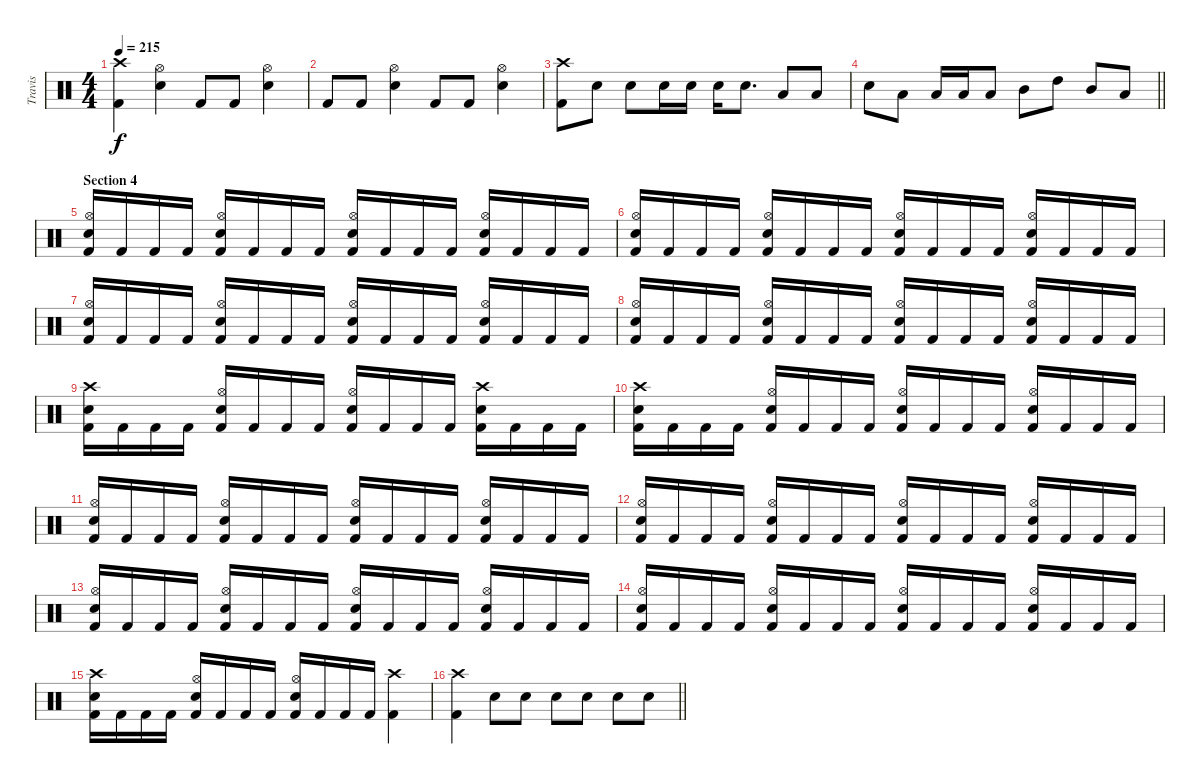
\track ("Travis" "Travis") {instrument percussion}
\staff {score}
\articulation defaults
\ts (4 4)
\tempo 215
\clef neutral
\ks c
("Crash high (hit)" "Kick (hit) 2").4{dy f} ("Hi-Hat (open)" "Snare (hit) 2").4 "Kick (hit) 2".8 "Kick (hit) 2".8 ("Hi-Hat (open)" "Snare (hit) 2").4 |
"Kick (hit) 2".8 "Kick (hit) 2".8 ("Hi-Hat (open)" "Snare (hit) 2").4 "Kick (hit) 2".8 "Kick (hit) 2".8 ("Hi-Hat (open)" "Snare (hit) 2").4 |
("Crash high (hit)" "Kick (hit) 2").8 "Snare (hit) 2".8 "Snare (hit) 2".8 "Snare (hit) 2".16 "Snare (hit) 2".16 "Snare (hit) 2".16 "Snare (hit) 2".8{d} "Low Tom (hit)".8 "Low Tom (hit)".8 |
\barLineRight lightlight "Snare (hit) 2".8 "Low Tom (hit)".8 "Low Tom (hit)".16 "Low Tom (hit)".16 "Low Tom (hit)".8 "Mid Tom (hit)".8 "High Tom (hit)".8 "Mid Tom (hit)".8 "Low Tom (hit)".8
|
\section ("" "Section 4")
("Hi-Hat (open)" "Snare (hit) 2" "Kick (hit) 2").16 "Kick (hit) 2".16 "Kick (hit) 2".16 "Kick (hit) 2".16 ("Hi-Hat (open)" "Snare (hit) 2" "Kick (hit) 2").16 "Kick (hit) 2".16 "Kick (hit) 2".16 "Kick (hit) 2".16 ("Hi-Hat (open)" "Snare (hit) 2" "Kick (hit) 2").16 "Kick (hit) 2".16 "Kick (hit) 2".16 "Kick (hit) 2".16 ("Hi-Hat (open)" "Snare (hit) 2" "Kick (hit) 2").16 "Kick (hit) 2".16 "Kick (hit) 2".16 "Kick (hit) 2".16 |
("Hi-Hat (open)" "Snare (hit) 2" "Kick (hit) 2").16 "Kick (hit) 2".16 "Kick (hit) 2".16 "Kick (hit) 2".16 ("Hi-Hat (open)" "Snare (hit) 2" "Kick (hit) 2").16 "Kick (hit) 2".16 "Kick (hit) 2".16 "Kick (hit) 2".16 ("Hi-Hat (open)" "Snare (hit) 2" "Kick (hit) 2").16 "Kick (hit) 2".16 "Kick (hit) 2".16 "Kick (hit) 2".16 ("Hi-Hat (open)" "Snare (hit) 2" "Kick (hit) 2").16 "Kick (hit) 2".16 "Kick (hit) 2".16 "Kick (hit) 2".16 |
("Hi-Hat (open)" "Snare (hit) 2" "Kick (hit) 2").16 "Kick (hit) 2".16 "Kick (hit) 2".16 "Kick (hit) 2".16 ("Hi-Hat (open)" "Snare (hit) 2" "Kick (hit) 2").16 "Kick (hit) 2".16 "Kick (hit) 2".16 "Kick (hit) 2".16 ("Hi-Hat (open)" "Snare (hit) 2" "Kick (hit) 2").16 "Kick (hit) 2".16 "Kick (hit) 2".16 "Kick (hit) 2".16 ("Hi-Hat (open)" "Snare (hit) 2" "Kick (hit) 2").16 "Kick (hit) 2".16 "Kick (hit) 2".16 "Kick (hit) 2".16 |
("Hi-Hat (open)" "Snare (hit) 2" "Kick (hit) 2").16 "Kick (hit) 2".16 "Kick (hit) 2".16 "Kick (hit) 2".16 ("Hi-Hat (open)" "Snare (hit) 2" "Kick (hit) 2").16 "Kick (hit) 2".16 "Kick (hit) 2".16 "Kick (hit) 2".16 ("Hi-Hat (open)" "Snare (hit) 2" "Kick (hit) 2").16 "Kick (hit) 2".16 "Kick (hit) 2".16 "Kick (hit) 2".16 ("Hi-Hat (open)" "Snare (hit) 2" "Kick (hit) 2").16 "Kick (hit) 2".16 "Kick (hit) 2".16 "Kick (hit) 2".16 |
("Crash high (hit)" "Snare (hit) 2" "Kick (hit) 2").16 "Kick (hit) 2".16 "Kick (hit) 2".16 "Kick (hit) 2".16 ("Hi-Hat (open)" "Snare (hit) 2" "Kick (hit) 2").16 "Kick (hit) 2".16 "Kick (hit) 2".16 "Kick (hit) 2".16 ("Hi-Hat (open)" "Snare (hit) 2" "Kick (hit) 2").16 "Kick (hit) 2".16 "Kick (hit) 2".16 "Kick (hit) 2".16 ("Crash high (hit)" "Snare (hit) 2" "Kick (hit) 2").16 "Kick (hit) 2".16 "Kick (hit) 2".16 "Kick (hit) 2".16 |
("Crash high (hit)" "Snare (hit) 2" "Kick (hit) 2").16 "Kick (hit) 2".16 "Kick (hit) 2".16 "Kick (hit) 2".16 ("Hi-Hat (open)" "Snare (hit) 2" "Kick (hit) 2").16 "Kick (hit) 2".16 "Kick (hit) 2".16 "Kick (hit) 2".16 ("Hi-Hat (open)" "Snare (hit) 2" "Kick (hit) 2").16 "Kick (hit) 2".16 "Kick (hit) 2".16 "Kick (hit) 2".16 ("Hi-Hat (open)" "Snare (hit) 2" "Kick (hit) 2").16 "Kick (hit) 2".16 "Kick (hit) 2".16 "Kick (hit) 2".16 |
("Hi-Hat (open)" "Snare (hit) 2" "Kick (hit) 2").16 "Kick (hit) 2".16 "Kick (hit) 2".16 "Kick (hit) 2".16 ("Hi-Hat (open)" "Snare (hit) 2" "Kick (hit) 2").16 "Kick (hit) 2".16 "Kick (hit) 2".16 "Kick (hit) 2".16 ("Hi-Hat (open)" "Snare (hit) 2" "Kick (hit) 2").16 "Kick (hit) 2".16 "Kick (hit) 2".16 "Kick (hit) 2".16 ("Hi-Hat (open)" "Snare (hit) 2" "Kick (hit) 2").16 "Kick (hit) 2".16 "Kick (hit) 2".16 "Kick (hit) 2".16 |
("Hi-Hat (open)" "Snare (hit) 2" "Kick (hit) 2").16 "Kick (hit) 2".16 "Kick (hit) 2".16 "Kick (hit) 2".16 ("Hi-Hat (open)" "Snare (hit) 2" "Kick (hit) 2").16 "Kick (hit) 2".16 "Kick (hit) 2".16 "Kick (hit) 2".16 ("Hi-Hat (open)" "Snare (hit) 2" "Kick (hit) 2").16 "Kick (hit) 2".16 "Kick (hit) 2".16 "Kick (hit) 2".16 ("Hi-Hat (open)" "Snare (hit) 2" "Kick (hit) 2").16 "Kick (hit) 2".16 "Kick (hit) 2".16 "Kick (hit) 2".16 |
("Hi-Hat (open)" "Snare (hit) 2" "Kick (hit) 2").16 "Kick (hit) 2".16 "Kick (hit) 2".16 "Kick (hit) 2".16 ("Hi-Hat (open)" "Snare (hit) 2" "Kick (hit) 2").16 "Kick (hit) 2".16 "Kick (hit) 2".16 "Kick (hit) 2".16 ("Hi-Hat (open)" "Snare (hit) 2" "Kick (hit) 2").16 "Kick (hit) 2".16 "Kick (hit) 2".16 "Kick (hit) 2".16 ("Hi-Hat (open)" "Snare (hit) 2" "Kick (hit) 2").16 "Kick (hit) 2".16 "Kick (hit) 2".16 "Kick (hit) 2".16 |
("Hi-Hat (open)" "Snare (hit) 2" "Kick (hit) 2").16 "Kick (hit) 2".16 "Kick (hit) 2".16 "Kick (hit) 2".16 ("Hi-Hat (open)" "Snare (hit) 2" "Kick (hit) 2").16 "Kick (hit) 2".16 "Kick (hit) 2".16 "Kick (hit) 2".16 ("Hi-Hat (open)" "Snare (hit) 2" "Kick (hit) 2").16 "Kick (hit) 2".16 "Kick (hit) 2".16 "Kick (hit) 2".16 ("Hi-Hat (open)" "Snare (hit) 2" "Kick (hit) 2").16 "Kick (hit) 2".16 "Kick (hit) 2".16 "Kick (hit) 2".16 |
("Crash high (hit)" "Snare (hit) 2" "Kick (hit) 2").16 "Kick (hit) 2".16 "Kick (hit) 2".16 "Kick (hit) 2".16 ("Hi-Hat (open)" "Snare (hit) 2" "Kick (hit) 2").16 "Kick (hit) 2".16 "Kick (hit) 2".16 "Kick (hit) 2".16 ("Hi-Hat (open)" "Snare (hit) 2" "Kick (hit) 2").16 "Kick (hit) 2".16 "Kick (hit) 2".16 "Kick (hit) 2".16 ("Crash high (hit)" "Kick (hit) 2").4 |
\barLineRight lightlight
("Crash high (hit)" "Kick (hit) 2").4 "Snare (hit) 2".8 "Snare (hit) 2".8 "Snare (hit) 2".8 "Snare (hit) 2".8 "Snare (hit) 2".8 "Snare (hit) 2".8
